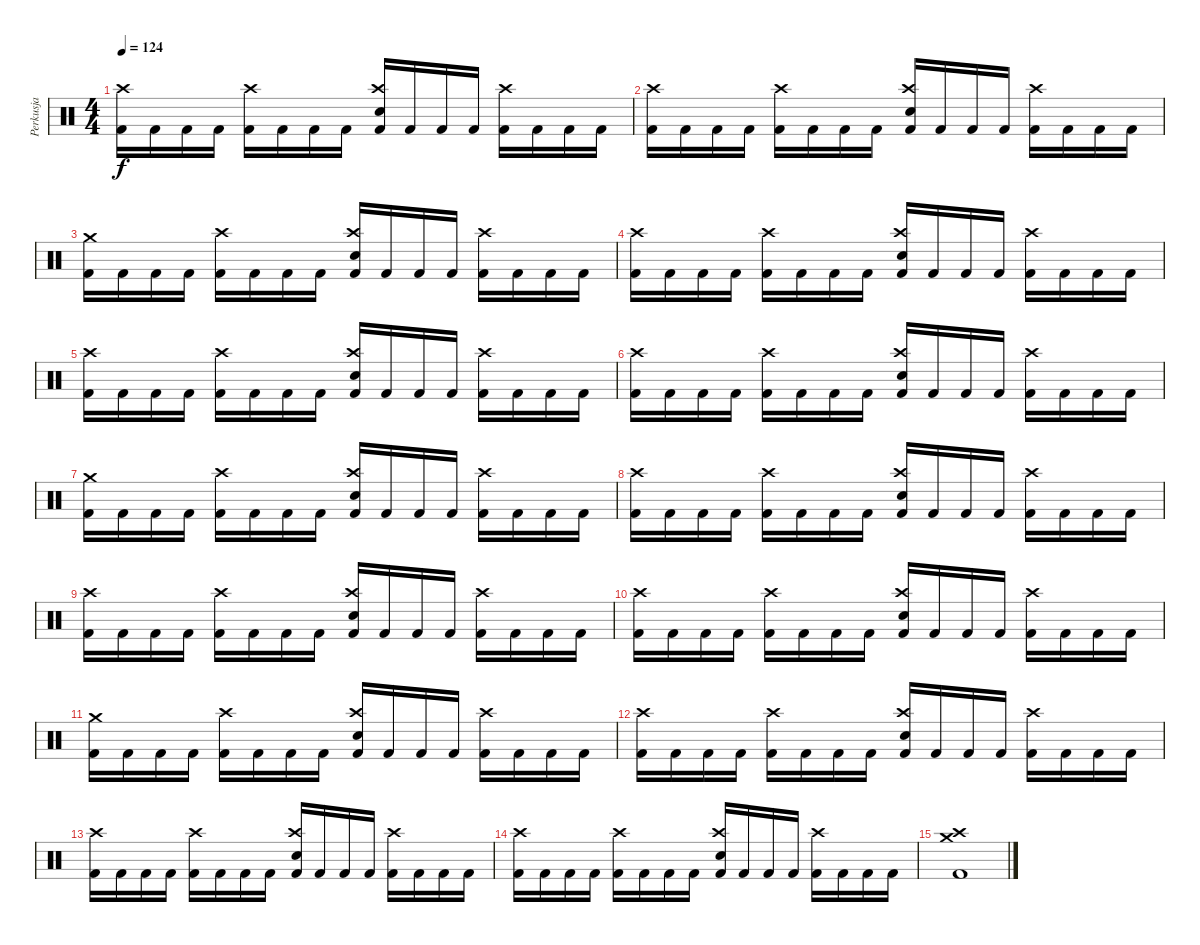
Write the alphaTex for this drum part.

\track ("Perkusja" "Perkusja") {instrument percussion}
\staff {score}
\articulation defaults
\ts (4 4)
\tempo 124
\clef neutral
\ks c
("Kick (hit) 2" "Crash high (hit)").16{dy f} "Kick (hit) 2".16 "Kick (hit) 2".16 "Kick (hit) 2".16 ("Kick (hit) 2" "Crash high (hit)").16 "Kick (hit) 2".16 "Kick (hit) 2".16 "Kick (hit) 2".16 ("Kick (hit) 2" "Snare (hit) 2" "Crash high (hit)").16 "Kick (hit) 2".16 "Kick (hit) 2".16 "Kick (hit) 2".16 ("Kick (hit) 2" "Crash high (hit)").16 "Kick (hit) 2".16 "Kick (hit) 2".16 "Kick (hit) 2".16 |
("Kick (hit) 2" "Crash high (hit)").16 "Kick (hit) 2".16 "Kick (hit) 2".16 "Kick (hit) 2".16 ("Kick (hit) 2" "Crash high (hit)").16 "Kick (hit) 2".16 "Kick (hit) 2".16 "Kick (hit) 2".16 ("Kick (hit) 2" "Snare (hit) 2" "Crash high (hit)").16 "Kick (hit) 2".16 "Kick (hit) 2".16 "Kick (hit) 2".16 ("Kick (hit) 2" "Crash high (hit)").16 "Kick (hit) 2".16 "Kick (hit) 2".16 "Kick (hit) 2".16 |
("Kick (hit) 2" "Crash medium (hit)").16 "Kick (hit) 2".16 "Kick (hit) 2".16 "Kick (hit) 2".16 ("Kick (hit) 2" "Crash high (hit)").16 "Kick (hit) 2".16 "Kick (hit) 2".16 "Kick (hit) 2".16 ("Kick (hit) 2" "Snare (hit) 2" "Crash high (hit)").16 "Kick (hit) 2".16 "Kick (hit) 2".16 "Kick (hit) 2".16 ("Kick (hit) 2" "Crash high (hit)").16 "Kick (hit) 2".16 "Kick (hit) 2".16 "Kick (hit) 2".16 |
("Kick (hit) 2" "Crash high (hit)").16 "Kick (hit) 2".16 "Kick (hit) 2".16 "Kick (hit) 2".16 ("Kick (hit) 2" "Crash high (hit)").16 "Kick (hit) 2".16 "Kick (hit) 2".16 "Kick (hit) 2".16 ("Kick (hit) 2" "Snare (hit) 2" "Crash high (hit)").16 "Kick (hit) 2".16 "Kick (hit) 2".16 "Kick (hit) 2".16 ("Kick (hit) 2" "Crash high (hit)").16 "Kick (hit) 2".16 "Kick (hit) 2".16 "Kick (hit) 2".16 |
("Kick (hit) 2" "Crash high (hit)").16 "Kick (hit) 2".16 "Kick (hit) 2".16 "Kick (hit) 2".16 ("Kick (hit) 2" "Crash high (hit)").16 "Kick (hit) 2".16 "Kick (hit) 2".16 "Kick (hit) 2".16 ("Kick (hit) 2" "Snare (hit) 2" "Crash high (hit)").16 "Kick (hit) 2".16 "Kick (hit) 2".16 "Kick (hit) 2".16 ("Kick (hit) 2" "Crash high (hit)").16 "Kick (hit) 2".16 "Kick (hit) 2".16 "Kick (hit) 2".16 |
("Kick (hit) 2" "Crash high (hit)").16 "Kick (hit) 2".16 "Kick (hit) 2".16 "Kick (hit) 2".16 ("Kick (hit) 2" "Crash high (hit)").16 "Kick (hit) 2".16 "Kick (hit) 2".16 "Kick (hit) 2".16 ("Kick (hit) 2" "Snare (hit) 2" "Crash high (hit)").16 "Kick (hit) 2".16 "Kick (hit) 2".16 "Kick (hit) 2".16 ("Kick (hit) 2" "Crash high (hit)").16 "Kick (hit) 2".16 "Kick (hit) 2".16 "Kick (hit) 2".16 |
("Kick (hit) 2" "Crash medium (hit)").16 "Kick (hit) 2".16 "Kick (hit) 2".16 "Kick (hit) 2".16 ("Kick (hit) 2" "Crash high (hit)").16 "Kick (hit) 2".16 "Kick (hit) 2".16 "Kick (hit) 2".16 ("Kick (hit) 2" "Snare (hit) 2" "Crash high (hit)").16 "Kick (hit) 2".16 "Kick (hit) 2".16 "Kick (hit) 2".16 ("Kick (hit) 2" "Crash high (hit)").16 "Kick (hit) 2".16 "Kick (hit) 2".16 "Kick (hit) 2".16 |
("Kick (hit) 2" "Crash high (hit)").16 "Kick (hit) 2".16 "Kick (hit) 2".16 "Kick (hit) 2".16 ("Kick (hit) 2" "Crash high (hit)").16 "Kick (hit) 2".16 "Kick (hit) 2".16 "Kick (hit) 2".16 ("Kick (hit) 2" "Snare (hit) 2" "Crash high (hit)").16 "Kick (hit) 2".16 "Kick (hit) 2".16 "Kick (hit) 2".16 ("Kick (hit) 2" "Crash high (hit)").16 "Kick (hit) 2".16 "Kick (hit) 2".16 "Kick (hit) 2".16 |
("Kick (hit) 2" "Crash high (hit)").16 "Kick (hit) 2".16 "Kick (hit) 2".16 "Kick (hit) 2".16 ("Kick (hit) 2" "Crash high (hit)").16 "Kick (hit) 2".16 "Kick (hit) 2".16 "Kick (hit) 2".16 ("Kick (hit) 2" "Snare (hit) 2" "Crash high (hit)").16 "Kick (hit) 2".16 "Kick (hit) 2".16 "Kick (hit) 2".16 ("Kick (hit) 2" "Crash high (hit)").16 "Kick (hit) 2".16 "Kick (hit) 2".16 "Kick (hit) 2".16 |
("Kick (hit) 2" "Crash high (hit)").16 "Kick (hit) 2".16 "Kick (hit) 2".16 "Kick (hit) 2".16 ("Kick (hit) 2" "Crash high (hit)").16 "Kick (hit) 2".16 "Kick (hit) 2".16 "Kick (hit) 2".16 ("Kick (hit) 2" "Snare (hit) 2" "Crash high (hit)").16 "Kick (hit) 2".16 "Kick (hit) 2".16 "Kick (hit) 2".16 ("Kick (hit) 2" "Crash high (hit)").16 "Kick (hit) 2".16 "Kick (hit) 2".16 "Kick (hit) 2".16 |
("Kick (hit) 2" "Crash medium (hit)").16 "Kick (hit) 2".16 "Kick (hit) 2".16 "Kick (hit) 2".16 ("Kick (hit) 2" "Crash high (hit)").16 "Kick (hit) 2".16 "Kick (hit) 2".16 "Kick (hit) 2".16 ("Kick (hit) 2" "Snare (hit) 2" "Crash high (hit)").16 "Kick (hit) 2".16 "Kick (hit) 2".16 "Kick (hit) 2".16 ("Kick (hit) 2" "Crash high (hit)").16 "Kick (hit) 2".16 "Kick (hit) 2".16 "Kick (hit) 2".16 |
("Kick (hit) 2" "Crash high (hit)").16 "Kick (hit) 2".16 "Kick (hit) 2".16 "Kick (hit) 2".16 ("Kick (hit) 2" "Crash high (hit)").16 "Kick (hit) 2".16 "Kick (hit) 2".16 "Kick (hit) 2".16 ("Kick (hit) 2" "Snare (hit) 2" "Crash high (hit)").16 "Kick (hit) 2".16 "Kick (hit) 2".16 "Kick (hit) 2".16 ("Kick (hit) 2" "Crash high (hit)").16 "Kick (hit) 2".16 "Kick (hit) 2".16 "Kick (hit) 2".16 |
("Kick (hit) 2" "Crash high (hit)").16 "Kick (hit) 2".16 "Kick (hit) 2".16 "Kick (hit) 2".16 ("Kick (hit) 2" "Crash high (hit)").16 "Kick (hit) 2".16 "Kick (hit) 2".16 "Kick (hit) 2".16 ("Kick (hit) 2" "Snare (hit) 2" "Crash high (hit)").16 "Kick (hit) 2".16 "Kick (hit) 2".16 "Kick (hit) 2".16 ("Kick (hit) 2" "Crash high (hit)").16 "Kick (hit) 2".16 "Kick (hit) 2".16 "Kick (hit) 2".16 |
("Kick (hit) 2" "Crash high (hit)").16 "Kick (hit) 2".16 "Kick (hit) 2".16 "Kick (hit) 2".16 ("Kick (hit) 2" "Crash high (hit)").16 "Kick (hit) 2".16 "Kick (hit) 2".16 "Kick (hit) 2".16 ("Kick (hit) 2" "Snare (hit) 2" "Crash high (hit)").16 "Kick (hit) 2".16 "Kick (hit) 2".16 "Kick (hit) 2".16 ("Kick (hit) 2" "Crash high (hit)").16 "Kick (hit) 2".16 "Kick (hit) 2".16 "Kick (hit) 2".16 |
("Kick (hit) 2" "Crash high (hit)" "Crash medium (hit)").1
